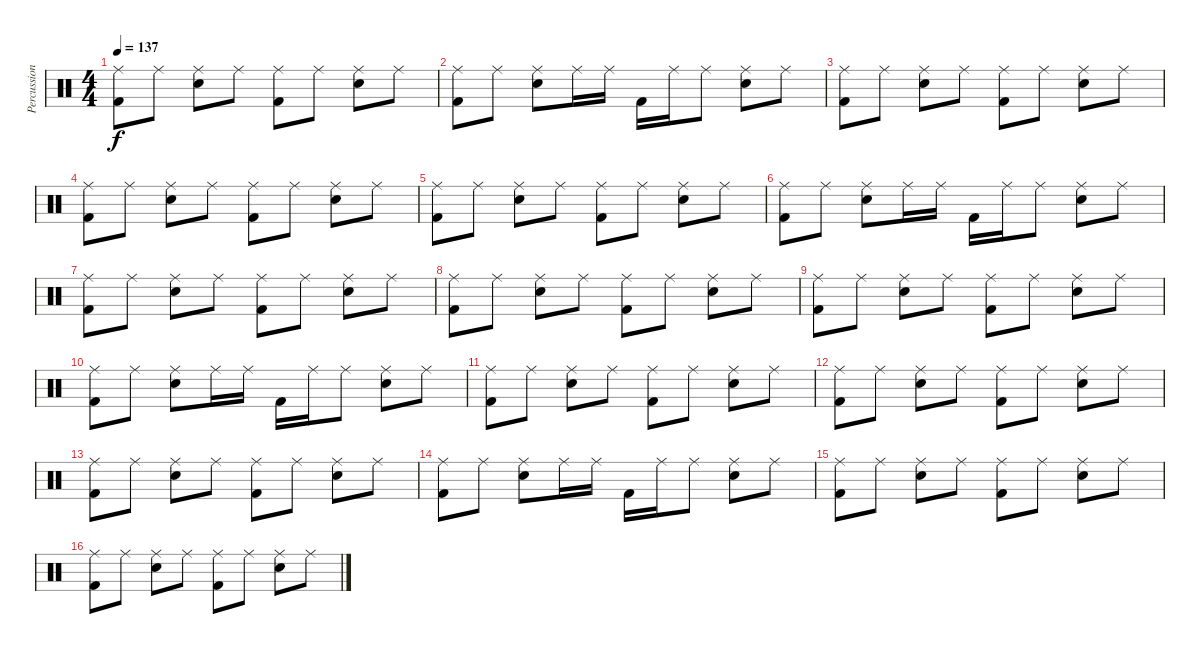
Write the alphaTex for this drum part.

\track ("Percussion" "Percussion") {instrument percussion}
\staff {score}
\articulation defaults
\ts (4 4)
\tempo 137
\clef neutral
\ks c
("Ride (middle)" "Kick (hit) 2").8{dy f} "Ride (middle)".8 ("Ride (middle)" "Snare (hit) 2").8 "Ride (middle)".8 ("Ride (middle)" "Kick (hit) 2").8 "Ride (middle)".8 ("Ride (middle)" "Snare (hit) 2").8 "Ride (middle)".8 |
("Ride (middle)" "Kick (hit) 2").8 "Ride (middle)".8 ("Ride (middle)" "Snare (hit) 2").8 "Ride (middle)".16 "Ride (middle)".16 "Kick (hit) 2".16 "Ride (middle)".16 "Ride (middle)".8 ("Ride (middle)" "Snare (hit) 2").8 "Ride (middle)".8 |
("Ride (middle)" "Kick (hit) 2").8 "Ride (middle)".8 ("Ride (middle)" "Snare (hit) 2").8 "Ride (middle)".8 ("Ride (middle)" "Kick (hit) 2").8 "Ride (middle)".8 ("Ride (middle)" "Snare (hit) 2").8 "Ride (middle)".8 |
("Ride (middle)" "Kick (hit) 2").8 "Ride (middle)".8 ("Ride (middle)" "Snare (hit) 2").8 "Ride (middle)".8 ("Ride (middle)" "Kick (hit) 2").8 "Ride (middle)".8 ("Ride (middle)" "Snare (hit) 2").8 "Ride (middle)".8 |
("Ride (middle)" "Kick (hit) 2").8 "Ride (middle)".8 ("Ride (middle)" "Snare (hit) 2").8 "Ride (middle)".8 ("Ride (middle)" "Kick (hit) 2").8 "Ride (middle)".8 ("Ride (middle)" "Snare (hit) 2").8 "Ride (middle)".8 |
("Ride (middle)" "Kick (hit) 2").8 "Ride (middle)".8 ("Ride (middle)" "Snare (hit) 2").8 "Ride (middle)".16 "Ride (middle)".16 "Kick (hit) 2".16 "Ride (middle)".16 "Ride (middle)".8 ("Ride (middle)" "Snare (hit) 2").8 "Ride (middle)".8 |
("Ride (middle)" "Kick (hit) 2").8 "Ride (middle)".8 ("Ride (middle)" "Snare (hit) 2").8 "Ride (middle)".8 ("Ride (middle)" "Kick (hit) 2").8 "Ride (middle)".8 ("Ride (middle)" "Snare (hit) 2").8 "Ride (middle)".8 |
("Ride (middle)" "Kick (hit) 2").8 "Ride (middle)".8 ("Ride (middle)" "Snare (hit) 2").8 "Ride (middle)".8 ("Ride (middle)" "Kick (hit) 2").8 "Ride (middle)".8 ("Ride (middle)" "Snare (hit) 2").8 "Ride (middle)".8 |
("Ride (middle)" "Kick (hit) 2").8 "Ride (middle)".8 ("Ride (middle)" "Snare (hit) 2").8 "Ride (middle)".8 ("Ride (middle)" "Kick (hit) 2").8 "Ride (middle)".8 ("Ride (middle)" "Snare (hit) 2").8 "Ride (middle)".8 |
("Ride (middle)" "Kick (hit) 2").8 "Ride (middle)".8 ("Ride (middle)" "Snare (hit) 2").8 "Ride (middle)".16 "Ride (middle)".16 "Kick (hit) 2".16 "Ride (middle)".16 "Ride (middle)".8 ("Ride (middle)" "Snare (hit) 2").8 "Ride (middle)".8 |
("Ride (middle)" "Kick (hit) 2").8 "Ride (middle)".8 ("Ride (middle)" "Snare (hit) 2").8 "Ride (middle)".8 ("Ride (middle)" "Kick (hit) 2").8 "Ride (middle)".8 ("Ride (middle)" "Snare (hit) 2").8 "Ride (middle)".8 |
("Ride (middle)" "Kick (hit) 2").8 "Ride (middle)".8 ("Ride (middle)" "Snare (hit) 2").8 "Ride (middle)".8 ("Ride (middle)" "Kick (hit) 2").8 "Ride (middle)".8 ("Ride (middle)" "Snare (hit) 2").8 "Ride (middle)".8 |
("Ride (middle)" "Kick (hit) 2").8 "Ride (middle)".8 ("Ride (middle)" "Snare (hit) 2").8 "Ride (middle)".8 ("Ride (middle)" "Kick (hit) 2").8 "Ride (middle)".8 ("Ride (middle)" "Snare (hit) 2").8 "Ride (middle)".8 |
("Ride (middle)" "Kick (hit) 2").8 "Ride (middle)".8 ("Ride (middle)" "Snare (hit) 2").8 "Ride (middle)".16 "Ride (middle)".16 "Kick (hit) 2".16 "Ride (middle)".16 "Ride (middle)".8 ("Ride (middle)" "Snare (hit) 2").8 "Ride (middle)".8 |
("Ride (middle)" "Kick (hit) 2").8 "Ride (middle)".8 ("Ride (middle)" "Snare (hit) 2").8 "Ride (middle)".8 ("Ride (middle)" "Kick (hit) 2").8 "Ride (middle)".8 ("Ride (middle)" "Snare (hit) 2").8 "Ride (middle)".8 |
("Ride (middle)" "Kick (hit) 2").8 "Ride (middle)".8 ("Ride (middle)" "Snare (hit) 2").8 "Ride (middle)".8 ("Ride (middle)" "Kick (hit) 2").8 "Ride (middle)".8 ("Ride (middle)" "Snare (hit) 2").8 "Ride (middle)".8
